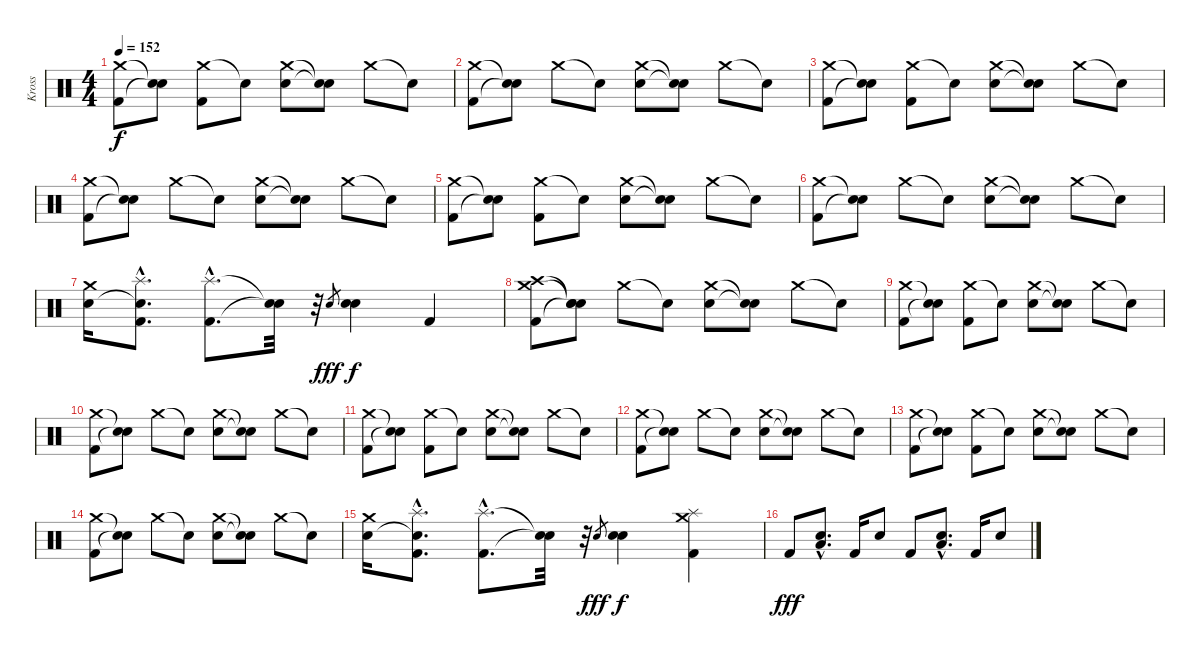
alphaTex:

\track ("Kross" "Kross") {instrument percussion}
\staff {score}
\articulation defaults
\ts (4 4)
\tempo 152
\clef neutral
\ks c
("Crash medium (hit)" "Kick (hit) 2").8{dy f} ("Snare (hit)"{t} "Snare (hit)"{t}).8 ("Crash medium (hit)" "Kick (hit) 2").8 "Snare (hit)"{t}.8 ("Crash medium (hit)" "Electric Snare (hit)").8 ("Snare (hit)"{t} "Snare (hit)"{t}).8 "Crash medium (hit)".8 "Snare (hit)"{t}.8 |
("Crash medium (hit)" "Kick (hit) 2").8 ("Snare (hit)"{t} "Snare (hit)"{t}).8 "Crash medium (hit)".8 "Snare (hit)"{t}.8 ("Crash medium (hit)" "Electric Snare (hit)").8 ("Snare (hit)"{t} "Snare (hit)"{t}).8 "Crash medium (hit)".8 "Snare (hit)"{t}.8 |
("Crash medium (hit)" "Kick (hit) 2").8 ("Snare (hit)"{t} "Snare (hit)"{t}).8 ("Crash medium (hit)" "Kick (hit) 2").8 "Snare (hit)"{t}.8 ("Crash medium (hit)" "Electric Snare (hit)").8 ("Snare (hit)"{t} "Snare (hit)"{t}).8 "Crash medium (hit)".8 "Snare (hit)"{t}.8 |
("Crash medium (hit)" "Kick (hit) 2").8 ("Snare (hit)"{t} "Snare (hit)"{t}).8 "Crash medium (hit)".8 "Snare (hit)"{t}.8 ("Crash medium (hit)" "Electric Snare (hit)").8 ("Snare (hit)"{t} "Snare (hit)"{t}).8 "Crash medium (hit)".8 "Snare (hit)"{t}.8 |
("Crash medium (hit)" "Kick (hit) 2").8 ("Snare (hit)"{t} "Snare (hit)"{t}).8 ("Crash medium (hit)" "Kick (hit) 2").8 "Snare (hit)"{t}.8 ("Crash medium (hit)" "Electric Snare (hit)").8 ("Snare (hit)"{t} "Snare (hit)"{t}).8 "Crash medium (hit)".8 "Snare (hit)"{t}.8 |
("Crash medium (hit)" "Kick (hit) 2").8 ("Snare (hit)"{t} "Snare (hit)"{t}).8 "Crash medium (hit)".8 "Snare (hit)"{t}.8 ("Crash medium (hit)" "Electric Snare (hit)").8 ("Snare (hit)"{t} "Snare (hit)"{t}).8 "Crash medium (hit)".8 "Snare (hit)"{t}.8 |
("Crash medium (hit)" "Electric Snare (hit)").16 ("Splash (hit)"{hac} "Snare (hit)"{hac t} "Kick (hit) 2"{hac}).8{d} ("Splash (hit)"{hac} "Kick (hit) 2"{hac}).8{d} ("Snare (hit)"{t} "Snare (hit)"{t}).32 r.32 "Electric Snare (hit)".8{gr dy fff} ("Electric Snare (hit)" "Electric Snare (hit)").4{dy f} "Kick (hit) 2".4 |
("Crash medium (hit)" "Crash high (hit)" "Kick (hit) 2").8 ("Snare (hit)"{t} "Snare (hit)"{t} "Snare (hit)"{t}).8 "Crash medium (hit)".8 "Snare (hit)"{t}.8 ("Crash medium (hit)" "Electric Snare (hit)").8 ("Snare (hit)"{t} "Snare (hit)"{t}).8 "Crash medium (hit)".8 "Snare (hit)"{t}.8 |
("Crash medium (hit)" "Kick (hit) 2").8 ("Snare (hit)"{t} "Snare (hit)"{t}).8 ("Crash medium (hit)" "Kick (hit) 2").8 "Snare (hit)"{t}.8 ("Crash medium (hit)" "Electric Snare (hit)").8 ("Snare (hit)"{t} "Snare (hit)"{t}).8 "Crash medium (hit)".8 "Snare (hit)"{t}.8 |
("Crash medium (hit)" "Kick (hit) 2").8 ("Snare (hit)"{t} "Snare (hit)"{t}).8 "Crash medium (hit)".8 "Snare (hit)"{t}.8 ("Crash medium (hit)" "Electric Snare (hit)").8 ("Snare (hit)"{t} "Snare (hit)"{t}).8 "Crash medium (hit)".8 "Snare (hit)"{t}.8 |
("Crash medium (hit)" "Kick (hit) 2").8 ("Snare (hit)"{t} "Snare (hit)"{t}).8 ("Crash medium (hit)" "Kick (hit) 2").8 "Snare (hit)"{t}.8 ("Crash medium (hit)" "Electric Snare (hit)").8 ("Snare (hit)"{t} "Snare (hit)"{t}).8 "Crash medium (hit)".8 "Snare (hit)"{t}.8 |
("Crash medium (hit)" "Kick (hit) 2").8 ("Snare (hit)"{t} "Snare (hit)"{t}).8 "Crash medium (hit)".8 "Snare (hit)"{t}.8 ("Crash medium (hit)" "Electric Snare (hit)").8 ("Snare (hit)"{t} "Snare (hit)"{t}).8 "Crash medium (hit)".8 "Snare (hit)"{t}.8 |
("Crash medium (hit)" "Kick (hit) 2").8 ("Snare (hit)"{t} "Snare (hit)"{t}).8 ("Crash medium (hit)" "Kick (hit) 2").8 "Snare (hit)"{t}.8 ("Crash medium (hit)" "Electric Snare (hit)").8 ("Snare (hit)"{t} "Snare (hit)"{t}).8 "Crash medium (hit)".8 "Snare (hit)"{t}.8 |
("Crash medium (hit)" "Kick (hit) 2").8 ("Snare (hit)"{t} "Snare (hit)"{t}).8 "Crash medium (hit)".8 "Snare (hit)"{t}.8 ("Crash medium (hit)" "Electric Snare (hit)").8 ("Snare (hit)"{t} "Snare (hit)"{t}).8 "Crash medium (hit)".8 "Snare (hit)"{t}.8 |
("Crash medium (hit)" "Electric Snare (hit)").16 ("Splash (hit)"{hac} "Snare (hit)"{hac t} "Kick (hit) 2"{hac}).8{d} ("Splash (hit)"{hac} "Kick (hit) 2"{hac}).8{d} ("Snare (hit)"{t} "Snare (hit)"{t}).32 r.32 "Electric Snare (hit)".8{gr dy fff} ("Electric Snare (hit)" "Electric Snare (hit)").4{dy f} ("Crash medium (hit)" "Splash (hit)" "Kick (hit) 2").4 |
"Kick (hit) 2".8{dy fff} ("Electric Snare (hit)"{hac} "Low Floor Tom (hit)"{hac}).8{d} "Kick (hit) 2".16 "Electric Snare (hit)".8 "Kick (hit) 2".8 ("Electric Snare (hit)"{hac} "Low Floor Tom (hit)"{hac}).8{d} "Kick (hit) 2".16 "Electric Snare (hit)".8
